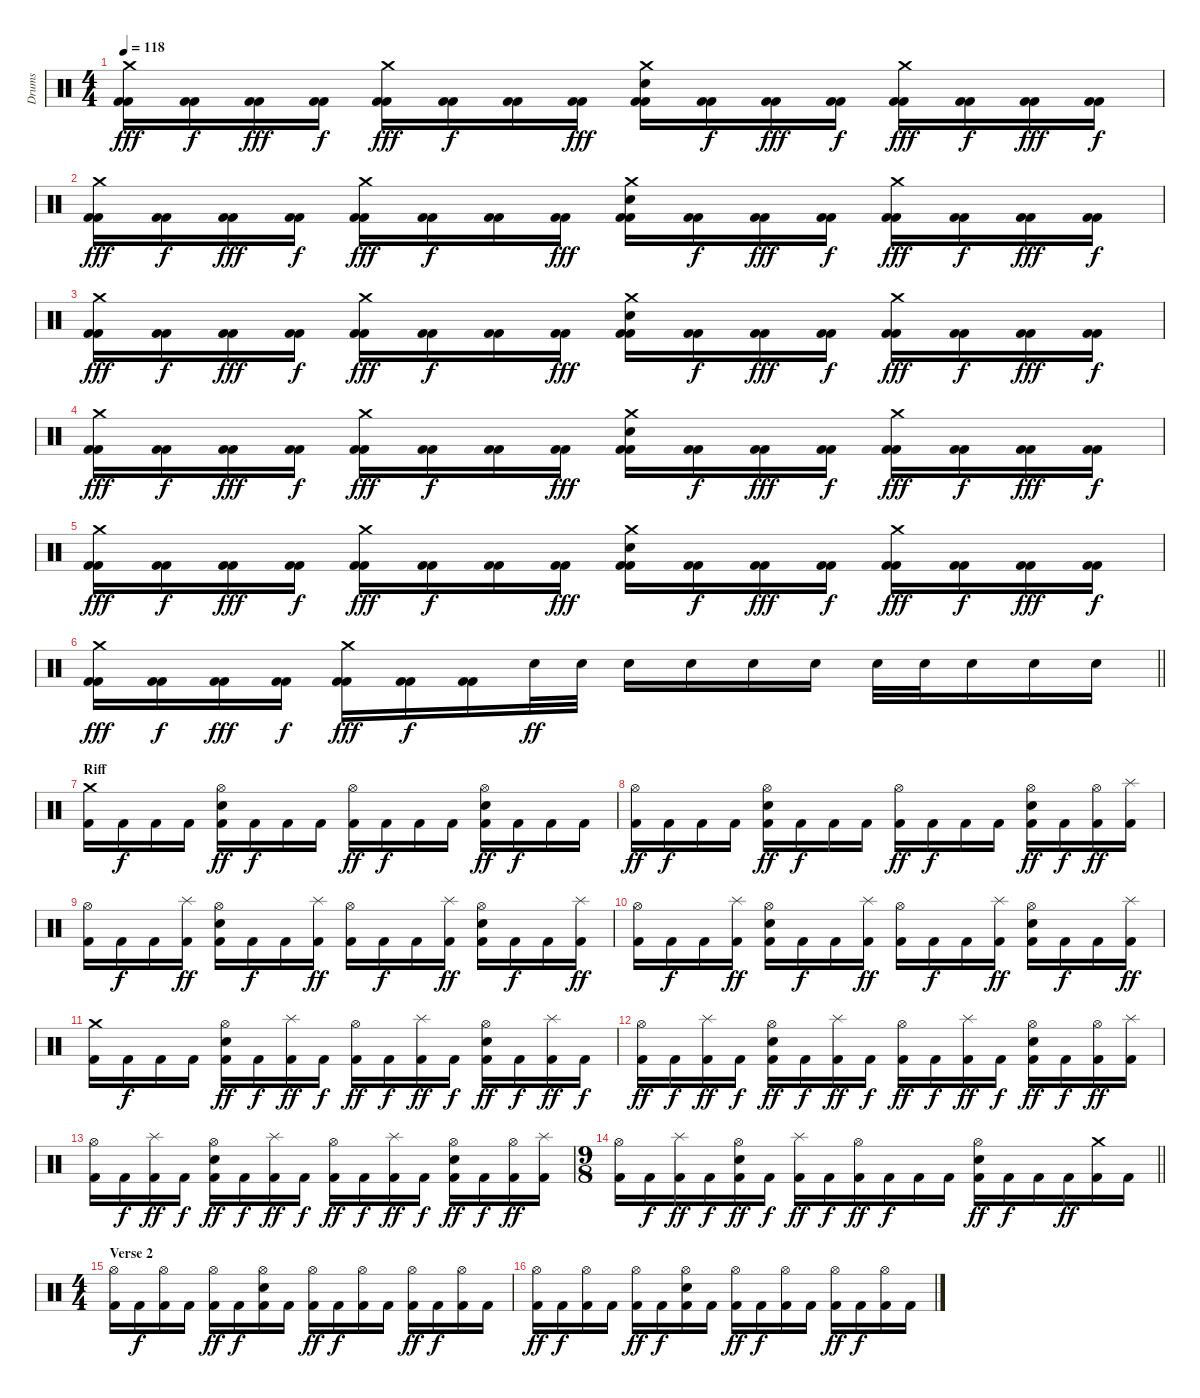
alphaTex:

\track ("Drums" "Drums") {instrument percussion}
\staff {score}
\articulation defaults
\ts (4 4)
\tempo 118
\clef neutral
\ks c
("Crash medium (hit)" "Kick (hit) 2" "Kick (hit) 2").16{dy fff} ("Kick (hit) 2" "Kick (hit) 2").16{dy f} ("Kick (hit) 2" "Kick (hit) 2").16{dy fff} ("Kick (hit) 2" "Kick (hit) 2").16{dy f} ("Crash medium (hit)" "Kick (hit) 2" "Kick (hit) 2").16{dy fff} ("Kick (hit) 2" "Kick (hit) 2").16{dy f} ("Kick (hit) 2" "Kick (hit) 2").16 ("Kick (hit) 2" "Kick (hit) 2").16{dy fff} ("Crash medium (hit)" "Electric Snare (hit)" "Kick (hit) 2" "Kick (hit) 2").16 ("Kick (hit) 2" "Kick (hit) 2").16{dy f} ("Kick (hit) 2" "Kick (hit) 2").16{dy fff} ("Kick (hit) 2" "Kick (hit) 2").16{dy f} ("Crash medium (hit)" "Kick (hit) 2" "Kick (hit) 2").16{dy fff} ("Kick (hit) 2" "Kick (hit) 2").16{dy f} ("Kick (hit) 2" "Kick (hit) 2").16{dy fff} ("Kick (hit) 2" "Kick (hit) 2").16{dy f} |
("Crash medium (hit)" "Kick (hit) 2" "Kick (hit) 2").16{dy fff} ("Kick (hit) 2" "Kick (hit) 2").16{dy f} ("Kick (hit) 2" "Kick (hit) 2").16{dy fff} ("Kick (hit) 2" "Kick (hit) 2").16{dy f} ("Crash medium (hit)" "Kick (hit) 2" "Kick (hit) 2").16{dy fff} ("Kick (hit) 2" "Kick (hit) 2").16{dy f} ("Kick (hit) 2" "Kick (hit) 2").16 ("Kick (hit) 2" "Kick (hit) 2").16{dy fff} ("Crash medium (hit)" "Electric Snare (hit)" "Kick (hit) 2" "Kick (hit) 2").16 ("Kick (hit) 2" "Kick (hit) 2").16{dy f} ("Kick (hit) 2" "Kick (hit) 2").16{dy fff} ("Kick (hit) 2" "Kick (hit) 2").16{dy f} ("Crash medium (hit)" "Kick (hit) 2" "Kick (hit) 2").16{dy fff} ("Kick (hit) 2" "Kick (hit) 2").16{dy f} ("Kick (hit) 2" "Kick (hit) 2").16{dy fff} ("Kick (hit) 2" "Kick (hit) 2").16{dy f} |
("Crash medium (hit)" "Kick (hit) 2" "Kick (hit) 2").16{dy fff} ("Kick (hit) 2" "Kick (hit) 2").16{dy f} ("Kick (hit) 2" "Kick (hit) 2").16{dy fff} ("Kick (hit) 2" "Kick (hit) 2").16{dy f} ("Crash medium (hit)" "Kick (hit) 2" "Kick (hit) 2").16{dy fff} ("Kick (hit) 2" "Kick (hit) 2").16{dy f} ("Kick (hit) 2" "Kick (hit) 2").16 ("Kick (hit) 2" "Kick (hit) 2").16{dy fff} ("Crash medium (hit)" "Electric Snare (hit)" "Kick (hit) 2" "Kick (hit) 2").16 ("Kick (hit) 2" "Kick (hit) 2").16{dy f} ("Kick (hit) 2" "Kick (hit) 2").16{dy fff} ("Kick (hit) 2" "Kick (hit) 2").16{dy f} ("Crash medium (hit)" "Kick (hit) 2" "Kick (hit) 2").16{dy fff} ("Kick (hit) 2" "Kick (hit) 2").16{dy f} ("Kick (hit) 2" "Kick (hit) 2").16{dy fff} ("Kick (hit) 2" "Kick (hit) 2").16{dy f} |
("Crash medium (hit)" "Kick (hit) 2" "Kick (hit) 2").16{dy fff} ("Kick (hit) 2" "Kick (hit) 2").16{dy f} ("Kick (hit) 2" "Kick (hit) 2").16{dy fff} ("Kick (hit) 2" "Kick (hit) 2").16{dy f} ("Crash medium (hit)" "Kick (hit) 2" "Kick (hit) 2").16{dy fff} ("Kick (hit) 2" "Kick (hit) 2").16{dy f} ("Kick (hit) 2" "Kick (hit) 2").16 ("Kick (hit) 2" "Kick (hit) 2").16{dy fff} ("Crash medium (hit)" "Electric Snare (hit)" "Kick (hit) 2" "Kick (hit) 2").16 ("Kick (hit) 2" "Kick (hit) 2").16{dy f} ("Kick (hit) 2" "Kick (hit) 2").16{dy fff} ("Kick (hit) 2" "Kick (hit) 2").16{dy f} ("Crash medium (hit)" "Kick (hit) 2" "Kick (hit) 2").16{dy fff} ("Kick (hit) 2" "Kick (hit) 2").16{dy f} ("Kick (hit) 2" "Kick (hit) 2").16{dy fff} ("Kick (hit) 2" "Kick (hit) 2").16{dy f} |
("Crash medium (hit)" "Kick (hit) 2" "Kick (hit) 2").16{dy fff} ("Kick (hit) 2" "Kick (hit) 2").16{dy f} ("Kick (hit) 2" "Kick (hit) 2").16{dy fff} ("Kick (hit) 2" "Kick (hit) 2").16{dy f} ("Crash medium (hit)" "Kick (hit) 2" "Kick (hit) 2").16{dy fff} ("Kick (hit) 2" "Kick (hit) 2").16{dy f} ("Kick (hit) 2" "Kick (hit) 2").16 ("Kick (hit) 2" "Kick (hit) 2").16{dy fff} ("Crash medium (hit)" "Electric Snare (hit)" "Kick (hit) 2" "Kick (hit) 2").16 ("Kick (hit) 2" "Kick (hit) 2").16{dy f} ("Kick (hit) 2" "Kick (hit) 2").16{dy fff} ("Kick (hit) 2" "Kick (hit) 2").16{dy f} ("Crash medium (hit)" "Kick (hit) 2" "Kick (hit) 2").16{dy fff} ("Kick (hit) 2" "Kick (hit) 2").16{dy f} ("Kick (hit) 2" "Kick (hit) 2").16{dy fff} ("Kick (hit) 2" "Kick (hit) 2").16{dy f} |
\barLineRight lightlight
("Crash medium (hit)" "Kick (hit) 2" "Kick (hit) 2").16{dy fff} ("Kick (hit) 2" "Kick (hit) 2").16{dy f} ("Kick (hit) 2" "Kick (hit) 2").16{dy fff} ("Kick (hit) 2" "Kick (hit) 2").16{dy f} ("Crash medium (hit)" "Kick (hit) 2" "Kick (hit) 2").16{dy fff} ("Kick (hit) 2" "Kick (hit) 2").16{dy f} ("Kick (hit) 2" "Kick (hit) 2").16 "Electric Snare (hit)".32{dy ff} "Electric Snare (hit)".32 "Electric Snare (hit)".16 "Electric Snare (hit)".16 "Electric Snare (hit)".16 "Electric Snare (hit)".16 "Electric Snare (hit)".32 "Electric Snare (hit)".32 "Electric Snare (hit)".16 "Electric Snare (hit)".16 "Electric Snare (hit)".16 |
\section ("" "Riff")
("Crash medium (hit)" "Kick (hit) 2").16 "Kick (hit) 2".16{dy f} "Kick (hit) 2".16 "Kick (hit) 2".16 ("Hi-Hat (open)" "Electric Snare (hit)" "Kick (hit) 2").16{dy ff} "Kick (hit) 2".16{dy f} "Kick (hit) 2".16 "Kick (hit) 2".16 ("Hi-Hat (open)" "Kick (hit) 2").16{dy ff} "Kick (hit) 2".16{dy f} "Kick (hit) 2".16 "Kick (hit) 2".16 ("Hi-Hat (open)" "Electric Snare (hit)" "Kick (hit) 2").16{dy ff} "Kick (hit) 2".16{dy f} "Kick (hit) 2".16 "Kick (hit) 2".16 |
("Hi-Hat (open)" "Kick (hit) 2").16{dy ff} "Kick (hit) 2".16{dy f} "Kick (hit) 2".16 "Kick (hit) 2".16 ("Hi-Hat (open)" "Electric Snare (hit)" "Kick (hit) 2").16{dy ff} "Kick (hit) 2".16{dy f} "Kick (hit) 2".16 "Kick (hit) 2".16 ("Hi-Hat (open)" "Kick (hit) 2").16{dy ff} "Kick (hit) 2".16{dy f} "Kick (hit) 2".16 "Kick (hit) 2".16 ("Hi-Hat (open)" "Electric Snare (hit)" "Kick (hit) 2").16{dy ff} "Kick (hit) 2".16{dy f} ("Hi-Hat (open)" "Kick (hit) 2").16{dy ff} ("Splash (hit)" "Kick (hit) 2").16 |
("Hi-Hat (open)" "Kick (hit) 2").16 "Kick (hit) 2".16{dy f} "Kick (hit) 2".16 ("Splash (hit)" "Kick (hit) 2").16{dy ff} ("Hi-Hat (open)" "Electric Snare (hit)" "Kick (hit) 2").16 "Kick (hit) 2".16{dy f} "Kick (hit) 2".16 ("Splash (hit)" "Kick (hit) 2").16{dy ff} ("Hi-Hat (open)" "Kick (hit) 2").16 "Kick (hit) 2".16{dy f} "Kick (hit) 2".16 ("Splash (hit)" "Kick (hit) 2").16{dy ff} ("Hi-Hat (open)" "Electric Snare (hit)" "Kick (hit) 2").16 "Kick (hit) 2".16{dy f} "Kick (hit) 2".16 ("Splash (hit)" "Kick (hit) 2").16{dy ff} |
("Hi-Hat (open)" "Kick (hit) 2").16 "Kick (hit) 2".16{dy f} "Kick (hit) 2".16 ("Splash (hit)" "Kick (hit) 2").16{dy ff} ("Hi-Hat (open)" "Electric Snare (hit)" "Kick (hit) 2").16 "Kick (hit) 2".16{dy f} "Kick (hit) 2".16 ("Splash (hit)" "Kick (hit) 2").16{dy ff} ("Hi-Hat (open)" "Kick (hit) 2").16 "Kick (hit) 2".16{dy f} "Kick (hit) 2".16 ("Splash (hit)" "Kick (hit) 2").16{dy ff} ("Hi-Hat (open)" "Electric Snare (hit)" "Kick (hit) 2").16 "Kick (hit) 2".16{dy f} "Kick (hit) 2".16 ("Splash (hit)" "Kick (hit) 2").16{dy ff} |
("Crash medium (hit)" "Kick (hit) 2").16 "Kick (hit) 2".16{dy f} "Kick (hit) 2".16 "Kick (hit) 2".16 ("Hi-Hat (open)" "Electric Snare (hit)" "Kick (hit) 2").16{dy ff} "Kick (hit) 2".16{dy f} ("Splash (hit)" "Kick (hit) 2").16{dy ff} "Kick (hit) 2".16{dy f} ("Hi-Hat (open)" "Kick (hit) 2").16{dy ff} "Kick (hit) 2".16{dy f} ("Splash (hit)" "Kick (hit) 2").16{dy ff} "Kick (hit) 2".16{dy f} ("Hi-Hat (open)" "Electric Snare (hit)" "Kick (hit) 2").16{dy ff} "Kick (hit) 2".16{dy f} ("Splash (hit)" "Kick (hit) 2").16{dy ff} "Kick (hit) 2".16{dy f} |
("Hi-Hat (open)" "Kick (hit) 2").16{dy ff} "Kick (hit) 2".16{dy f} ("Splash (hit)" "Kick (hit) 2").16{dy ff} "Kick (hit) 2".16{dy f} ("Hi-Hat (open)" "Electric Snare (hit)" "Kick (hit) 2").16{dy ff} "Kick (hit) 2".16{dy f} ("Splash (hit)" "Kick (hit) 2").16{dy ff} "Kick (hit) 2".16{dy f} ("Hi-Hat (open)" "Kick (hit) 2").16{dy ff} "Kick (hit) 2".16{dy f} ("Splash (hit)" "Kick (hit) 2").16{dy ff} "Kick (hit) 2".16{dy f} ("Hi-Hat (open)" "Electric Snare (hit)" "Kick (hit) 2").16{dy ff} "Kick (hit) 2".16{dy f} ("Hi-Hat (open)" "Kick (hit) 2").16{dy ff} ("Splash (hit)" "Kick (hit) 2").16 |
("Hi-Hat (open)" "Kick (hit) 2").16 "Kick (hit) 2".16{dy f} ("Splash (hit)" "Kick (hit) 2").16{dy ff} "Kick (hit) 2".16{dy f} ("Hi-Hat (open)" "Electric Snare (hit)" "Kick (hit) 2").16{dy ff} "Kick (hit) 2".16{dy f} ("Splash (hit)" "Kick (hit) 2").16{dy ff} "Kick (hit) 2".16{dy f} ("Hi-Hat (open)" "Kick (hit) 2").16{dy ff} "Kick (hit) 2".16{dy f} ("Splash (hit)" "Kick (hit) 2").16{dy ff} "Kick (hit) 2".16{dy f} ("Hi-Hat (open)" "Electric Snare (hit)" "Kick (hit) 2").16{dy ff} "Kick (hit) 2".16{dy f} ("Hi-Hat (open)" "Kick (hit) 2").16{dy ff} ("Splash (hit)" "Kick (hit) 2").16 |
\ts (9 8)
\barLineRight lightlight
("Hi-Hat (open)" "Kick (hit) 2").16 "Kick (hit) 2".16{dy f} ("Splash (hit)" "Kick (hit) 2").16{dy ff} "Kick (hit) 2".16{dy f} ("Hi-Hat (open)" "Electric Snare (hit)" "Kick (hit) 2").16{dy ff} "Kick (hit) 2".16{dy f} ("Splash (hit)" "Kick (hit) 2").16{dy ff} "Kick (hit) 2".16{dy f} ("Hi-Hat (open)" "Kick (hit) 2").16{dy ff} "Kick (hit) 2".16{dy f} "Kick (hit) 2".16 "Kick (hit) 2".16 ("Hi-Hat (open)" "Electric Snare (hit)" "Kick (hit) 2").16{dy ff} "Kick (hit) 2".16{dy f} "Kick (hit) 2".16 "Kick (hit) 2".16{dy ff} ("Crash medium (hit)" "Kick (hit) 2").16 "Kick (hit) 2".16 |
\ts (4 4)
\section ("" "Verse 2")
("Hi-Hat (open)" "Kick (hit) 2").16 "Kick (hit) 2".16{dy f} ("Hi-Hat (open)" "Kick (hit) 2").16 "Kick (hit) 2".16 ("Hi-Hat (open)" "Kick (hit) 2").16{dy ff} "Kick (hit) 2".16{dy f} ("Hi-Hat (open)" "Electric Snare (hit)" "Kick (hit) 2").16 "Kick (hit) 2".16 ("Hi-Hat (open)" "Kick (hit) 2").16{dy ff} "Kick (hit) 2".16{dy f} ("Hi-Hat (open)" "Kick (hit) 2").16 "Kick (hit) 2".16 ("Hi-Hat (open)" "Kick (hit) 2").16{dy ff} "Kick (hit) 2".16{dy f} ("Hi-Hat (open)" "Kick (hit) 2").16 "Kick (hit) 2".16 |
("Hi-Hat (open)" "Kick (hit) 2").16{dy ff} "Kick (hit) 2".16{dy f} ("Hi-Hat (open)" "Kick (hit) 2").16 "Kick (hit) 2".16 ("Hi-Hat (open)" "Kick (hit) 2").16{dy ff} "Kick (hit) 2".16{dy f} ("Hi-Hat (open)" "Electric Snare (hit)" "Kick (hit) 2").16 "Kick (hit) 2".16 ("Hi-Hat (open)" "Kick (hit) 2").16{dy ff} "Kick (hit) 2".16{dy f} ("Hi-Hat (open)" "Kick (hit) 2").16 "Kick (hit) 2".16 ("Hi-Hat (open)" "Kick (hit) 2").16{dy ff} "Kick (hit) 2".16{dy f} ("Hi-Hat (open)" "Kick (hit) 2").16 "Kick (hit) 2".16
